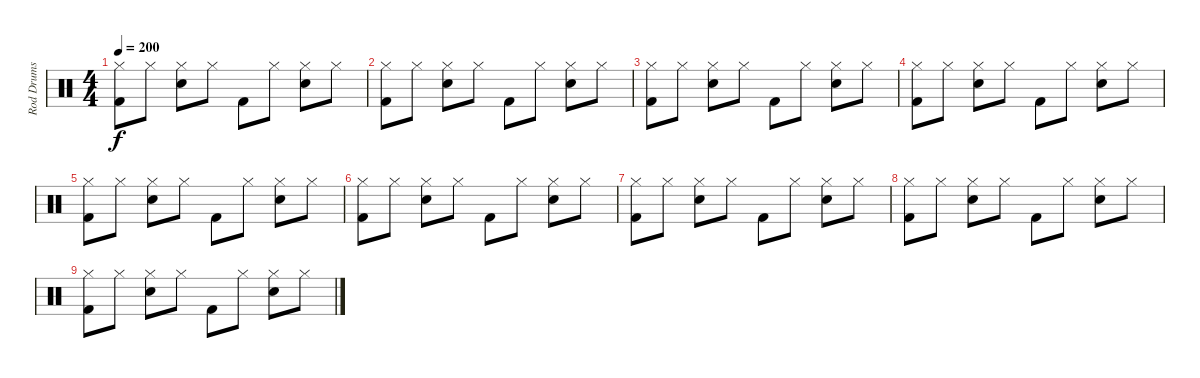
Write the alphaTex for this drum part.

\track ("Rod Drums" "Rod Drums") {instrument percussion}
\staff {score}
\articulation defaults
\ts (4 4)
\tempo 200
\clef neutral
\ks c
("Kick (hit) 2" "Hi-Hat (closed)").8{dy f} "Hi-Hat (closed)".8 ("Snare (hit) 2" "Hi-Hat (closed)").8 "Hi-Hat (closed)".8 "Kick (hit) 2".8 "Hi-Hat (closed)".8 ("Snare (hit) 2" "Hi-Hat (closed)").8 "Hi-Hat (closed)".8 |
("Kick (hit) 2" "Hi-Hat (closed)").8 "Hi-Hat (closed)".8 ("Snare (hit) 2" "Hi-Hat (closed)").8 "Hi-Hat (closed)".8 "Kick (hit) 2".8 "Hi-Hat (closed)".8 ("Snare (hit) 2" "Hi-Hat (closed)").8 "Hi-Hat (closed)".8 |
("Kick (hit) 2" "Hi-Hat (closed)").8 "Hi-Hat (closed)".8 ("Snare (hit) 2" "Hi-Hat (closed)").8 "Hi-Hat (closed)".8 "Kick (hit) 2".8 "Hi-Hat (closed)".8 ("Snare (hit) 2" "Hi-Hat (closed)").8 "Hi-Hat (closed)".8 |
("Kick (hit) 2" "Hi-Hat (closed)").8 "Hi-Hat (closed)".8 ("Snare (hit) 2" "Hi-Hat (closed)").8 "Hi-Hat (closed)".8 "Kick (hit) 2".8 "Hi-Hat (closed)".8 ("Snare (hit) 2" "Hi-Hat (closed)").8 "Hi-Hat (closed)".8 |
("Kick (hit) 2" "Hi-Hat (closed)").8 "Hi-Hat (closed)".8 ("Snare (hit) 2" "Hi-Hat (closed)").8 "Hi-Hat (closed)".8 "Kick (hit) 2".8 "Hi-Hat (closed)".8 ("Snare (hit) 2" "Hi-Hat (closed)").8 "Hi-Hat (closed)".8 |
("Kick (hit) 2" "Hi-Hat (closed)").8 "Hi-Hat (closed)".8 ("Snare (hit) 2" "Hi-Hat (closed)").8 "Hi-Hat (closed)".8 "Kick (hit) 2".8 "Hi-Hat (closed)".8 ("Snare (hit) 2" "Hi-Hat (closed)").8 "Hi-Hat (closed)".8 |
("Kick (hit) 2" "Hi-Hat (closed)").8 "Hi-Hat (closed)".8 ("Snare (hit) 2" "Hi-Hat (closed)").8 "Hi-Hat (closed)".8 "Kick (hit) 2".8 "Hi-Hat (closed)".8 ("Snare (hit) 2" "Hi-Hat (closed)").8 "Hi-Hat (closed)".8 |
("Kick (hit) 2" "Hi-Hat (closed)").8 "Hi-Hat (closed)".8 ("Snare (hit) 2" "Hi-Hat (closed)").8 "Hi-Hat (closed)".8 "Kick (hit) 2".8 "Hi-Hat (closed)".8 ("Snare (hit) 2" "Hi-Hat (closed)").8 "Hi-Hat (closed)".8 |
("Kick (hit) 2" "Hi-Hat (closed)").8 "Hi-Hat (closed)".8 ("Snare (hit) 2" "Hi-Hat (closed)").8 "Hi-Hat (closed)".8 "Kick (hit) 2".8 "Hi-Hat (closed)".8 ("Snare (hit) 2" "Hi-Hat (closed)").8 "Hi-Hat (closed)".8
